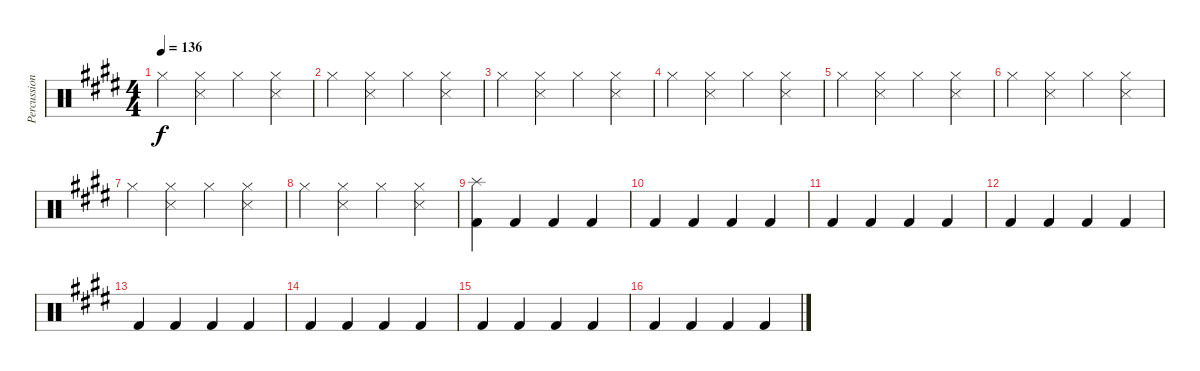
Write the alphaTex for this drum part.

\track ("Percussion" "Percussion") {instrument percussion}
\staff {score}
\articulation defaults
\ts (4 4)
\tempo 136
\clef neutral
\ks e "Hi-Hat (closed)".4{dy f}
("Hi-Hat (closed)" "Snare (side stick) 3").4 "Hi-Hat (closed)".4 ("Hi-Hat (closed)" "Snare (side stick) 3").4 |
"Hi-Hat (closed)".4 ("Hi-Hat (closed)" "Snare (side stick) 3").4 "Hi-Hat (closed)".4 ("Hi-Hat (closed)" "Snare (side stick) 3").4 |
"Hi-Hat (closed)".4 ("Hi-Hat (closed)" "Snare (side stick) 3").4 "Hi-Hat (closed)".4 ("Hi-Hat (closed)" "Snare (side stick) 3").4 |
"Hi-Hat (closed)".4 ("Hi-Hat (closed)" "Snare (side stick) 3").4 "Hi-Hat (closed)".4 ("Hi-Hat (closed)" "Snare (side stick) 3").4 |
"Hi-Hat (closed)".4 ("Hi-Hat (closed)" "Snare (side stick) 3").4 "Hi-Hat (closed)".4 ("Hi-Hat (closed)" "Snare (side stick) 3").4 |
"Hi-Hat (closed)".4 ("Hi-Hat (closed)" "Snare (side stick) 3").4 "Hi-Hat (closed)".4 ("Hi-Hat (closed)" "Snare (side stick) 3").4 |
"Hi-Hat (closed)".4 ("Hi-Hat (closed)" "Snare (side stick) 3").4 "Hi-Hat (closed)".4 ("Hi-Hat (closed)" "Snare (side stick) 3").4 |
"Hi-Hat (closed)".4 ("Hi-Hat (closed)" "Snare (side stick) 3").4 "Hi-Hat (closed)".4 ("Hi-Hat (closed)" "Snare (side stick) 3").4 |
("Splash (hit)" "Kick (hit) 2").4 "Kick (hit) 2".4 "Kick (hit) 2".4 "Kick (hit) 2".4 |
"Kick (hit) 2".4 "Kick (hit) 2".4 "Kick (hit) 2".4 "Kick (hit) 2".4 |
"Kick (hit) 2".4 "Kick (hit) 2".4 "Kick (hit) 2".4 "Kick (hit) 2".4 |
"Kick (hit) 2".4 "Kick (hit) 2".4 "Kick (hit) 2".4 "Kick (hit) 2".4 |
"Kick (hit) 2".4 "Kick (hit) 2".4 "Kick (hit) 2".4 "Kick (hit) 2".4 |
"Kick (hit) 2".4 "Kick (hit) 2".4 "Kick (hit) 2".4 "Kick (hit) 2".4 |
"Kick (hit) 2".4 "Kick (hit) 2".4 "Kick (hit) 2".4 "Kick (hit) 2".4 |
"Kick (hit) 2".4 "Kick (hit) 2".4 "Kick (hit) 2".4 "Kick (hit) 2".4
